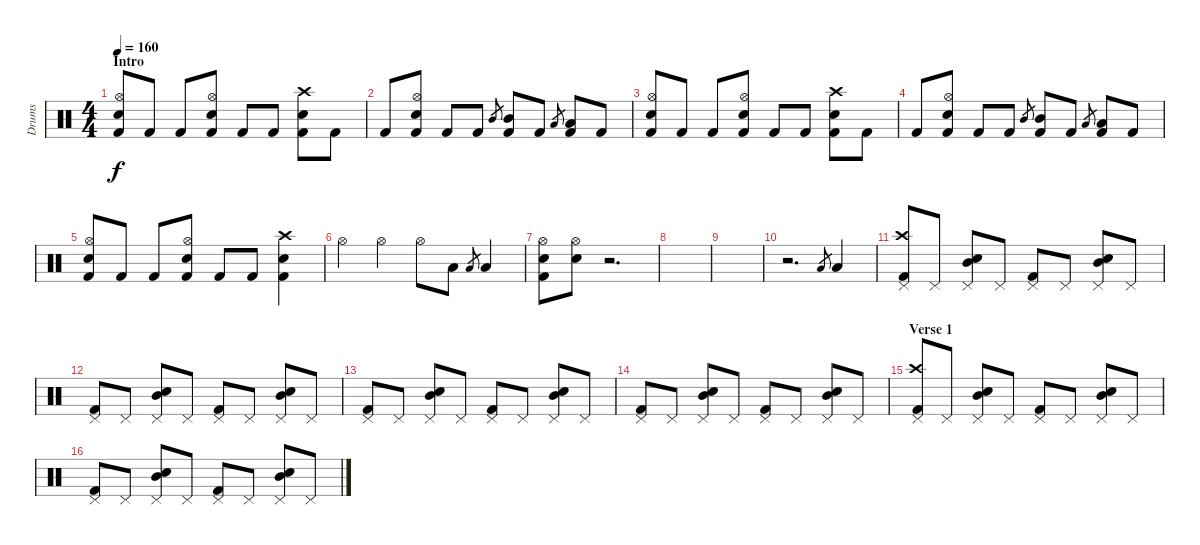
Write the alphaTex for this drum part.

\track ("Drums" "Drums") {instrument percussion}
\staff {score}
\articulation defaults
\ts (4 4)
\section ("" "Intro")
\tempo 160
\clef neutral
\ks c
("Kick (hit) 2" "Hi-Hat (open)" "Snare (hit) 2").8{dy f} "Kick (hit) 2".8 "Kick (hit) 2".8 ("Kick (hit) 2" "Hi-Hat (open)" "Snare (hit) 2").8 "Kick (hit) 2".8 "Kick (hit) 2".8 ("Kick (hit) 2" "Crash high (hit)" "Snare (hit) 2").8 "Kick (hit) 2".8 |
"Kick (hit) 2".8 ("Kick (hit) 2" "Hi-Hat (open)" "Snare (hit) 2").8 "Kick (hit) 2".8 "Kick (hit) 2".8 "Mid Tom (hit)".8{gr} ("Kick (hit) 2" "Mid Tom (hit)").8 "Kick (hit) 2".8 "Low Tom (hit)".8{gr} ("Kick (hit) 2" "Low Tom (hit)").8 "Kick (hit) 2".8 |
("Kick (hit) 2" "Hi-Hat (open)" "Snare (hit) 2").8 "Kick (hit) 2".8 "Kick (hit) 2".8 ("Kick (hit) 2" "Hi-Hat (open)" "Snare (hit) 2").8 "Kick (hit) 2".8 "Kick (hit) 2".8 ("Kick (hit) 2" "Crash high (hit)" "Snare (hit) 2").8 "Kick (hit) 2".8 |
"Kick (hit) 2".8 ("Kick (hit) 2" "Hi-Hat (open)" "Snare (hit) 2").8 "Kick (hit) 2".8 "Kick (hit) 2".8 "Mid Tom (hit)".8{gr} ("Kick (hit) 2" "Mid Tom (hit)").8 "Kick (hit) 2".8 "Low Tom (hit)".8{gr} ("Kick (hit) 2" "Low Tom (hit)").8 "Kick (hit) 2".8 |
("Kick (hit) 2" "Hi-Hat (open)" "Snare (hit) 2").8 "Kick (hit) 2".8 "Kick (hit) 2".8 ("Kick (hit) 2" "Hi-Hat (open)" "Snare (hit) 2").8 "Kick (hit) 2".8 "Kick (hit) 2".8 ("Kick (hit) 2" "Crash high (hit)" "Snare (hit) 2").4 |
"Hi-Hat (open)".4 "Hi-Hat (open)".4 "Hi-Hat (open)".8 "Low Tom (hit)".8 "Low Tom (hit)".8{gr} "Low Tom (hit)".4 |
("Kick (hit) 2" "Hi-Hat (open)" "Snare (hit) 2").8 ("Hi-Hat (open)" "Snare (hit) 2").8 r.2{d} |
|
|
r.2{d} "Low Tom (hit)".8{gr} "Low Tom (hit)".4 |
("Kick (hit) 2" "Pedal Hi-Hat (hit)" "Crash high (hit)").8 "Pedal Hi-Hat (hit)".8 ("Snare (hit) 2" "Pedal Hi-Hat (hit)" "Mid Tom (hit)").8 "Pedal Hi-Hat (hit)".8 ("Kick (hit) 2" "Pedal Hi-Hat (hit)").8 "Pedal Hi-Hat (hit)".8 ("Snare (hit) 2" "Pedal Hi-Hat (hit)" "Mid Tom (hit)").8 "Pedal Hi-Hat (hit)".8 |
("Kick (hit) 2" "Pedal Hi-Hat (hit)").8 "Pedal Hi-Hat (hit)".8 ("Snare (hit) 2" "Pedal Hi-Hat (hit)" "Mid Tom (hit)").8 "Pedal Hi-Hat (hit)".8 ("Kick (hit) 2" "Pedal Hi-Hat (hit)").8 "Pedal Hi-Hat (hit)".8 ("Snare (hit) 2" "Pedal Hi-Hat (hit)" "Mid Tom (hit)").8 "Pedal Hi-Hat (hit)".8 |
("Kick (hit) 2" "Pedal Hi-Hat (hit)").8 "Pedal Hi-Hat (hit)".8 ("Snare (hit) 2" "Pedal Hi-Hat (hit)" "Mid Tom (hit)").8 "Pedal Hi-Hat (hit)".8 ("Kick (hit) 2" "Pedal Hi-Hat (hit)").8 "Pedal Hi-Hat (hit)".8 ("Snare (hit) 2" "Pedal Hi-Hat (hit)" "Mid Tom (hit)").8 "Pedal Hi-Hat (hit)".8 |
("Kick (hit) 2" "Pedal Hi-Hat (hit)").8 "Pedal Hi-Hat (hit)".8 ("Snare (hit) 2" "Pedal Hi-Hat (hit)" "Mid Tom (hit)").8 "Pedal Hi-Hat (hit)".8 ("Kick (hit) 2" "Pedal Hi-Hat (hit)").8 "Pedal Hi-Hat (hit)".8 ("Snare (hit) 2" "Pedal Hi-Hat (hit)" "Mid Tom (hit)").8 "Pedal Hi-Hat (hit)".8 |
\section ("" "Verse 1")
("Kick (hit) 2" "Pedal Hi-Hat (hit)" "Crash high (hit)").8 "Pedal Hi-Hat (hit)".8 ("Snare (hit) 2" "Pedal Hi-Hat (hit)" "Mid Tom (hit)").8 "Pedal Hi-Hat (hit)".8 ("Kick (hit) 2" "Pedal Hi-Hat (hit)").8 "Pedal Hi-Hat (hit)".8 ("Snare (hit) 2" "Pedal Hi-Hat (hit)" "Mid Tom (hit)").8 "Pedal Hi-Hat (hit)".8 |
("Kick (hit) 2" "Pedal Hi-Hat (hit)").8 "Pedal Hi-Hat (hit)".8 ("Snare (hit) 2" "Pedal Hi-Hat (hit)" "Mid Tom (hit)").8 "Pedal Hi-Hat (hit)".8 ("Kick (hit) 2" "Pedal Hi-Hat (hit)").8 "Pedal Hi-Hat (hit)".8 ("Snare (hit) 2" "Pedal Hi-Hat (hit)" "Mid Tom (hit)").8 "Pedal Hi-Hat (hit)".8
